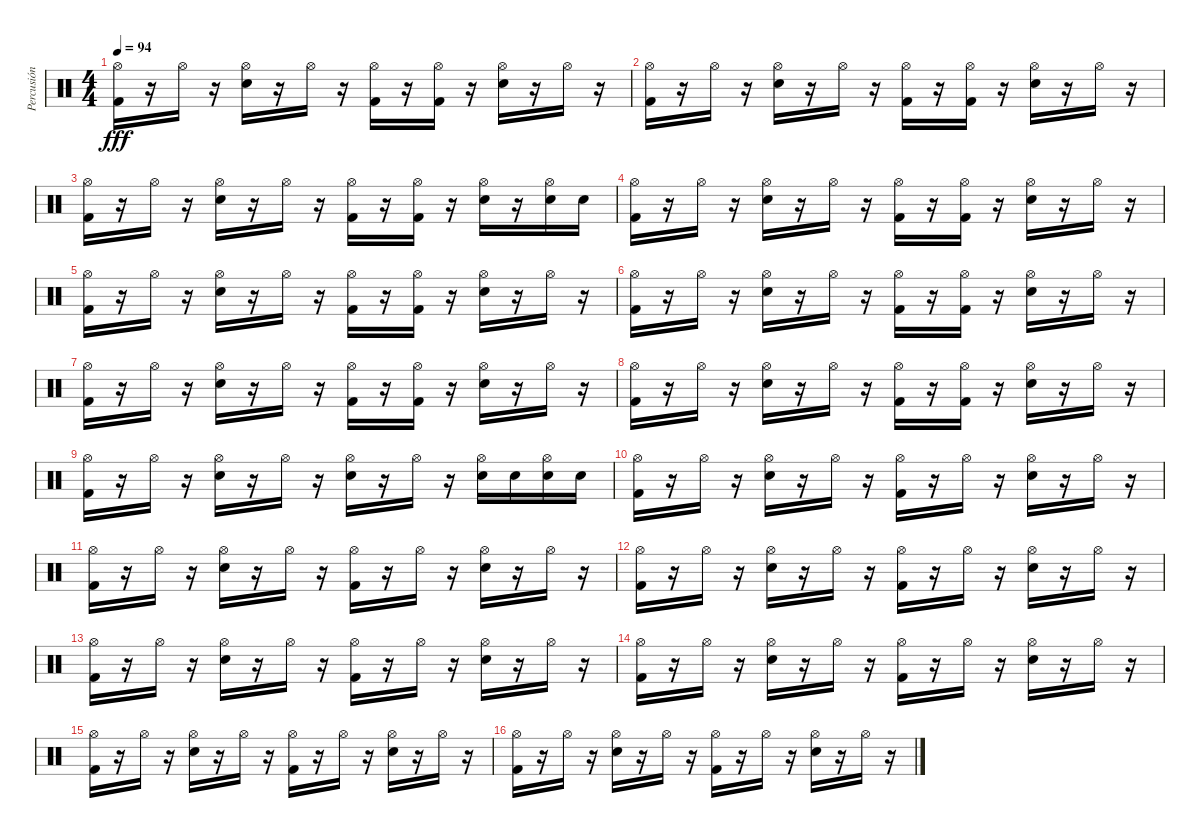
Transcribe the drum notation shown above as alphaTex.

\track ("Percusión" "Percusión") {instrument percussion}
\staff {score}
\articulation defaults
\ts (4 4)
\tempo 94
\clef neutral
\ks c
("Hi-Hat (open)" "Kick (hit) 2").16{dy fff} r.16 "Hi-Hat (open)".16 r.16 ("Hi-Hat (open)" "Snare (hit) 2").16 r.16 "Hi-Hat (open)".16 r.16 ("Hi-Hat (open)" "Kick (hit) 2").16 r.16 ("Hi-Hat (open)" "Kick (hit) 2").16 r.16 ("Hi-Hat (open)" "Snare (hit) 2").16 r.16 "Hi-Hat (open)".16 r.16 |
("Hi-Hat (open)" "Kick (hit) 2").16 r.16 "Hi-Hat (open)".16 r.16 ("Hi-Hat (open)" "Snare (hit) 2").16 r.16 "Hi-Hat (open)".16 r.16 ("Hi-Hat (open)" "Kick (hit) 2").16 r.16 ("Hi-Hat (open)" "Kick (hit) 2").16 r.16 ("Hi-Hat (open)" "Snare (hit) 2").16 r.16 "Hi-Hat (open)".16 r.16 |
("Hi-Hat (open)" "Kick (hit) 2").16 r.16 "Hi-Hat (open)".16 r.16 ("Hi-Hat (open)" "Snare (hit) 2").16 r.16 "Hi-Hat (open)".16 r.16 ("Hi-Hat (open)" "Kick (hit) 2").16 r.16 ("Hi-Hat (open)" "Kick (hit) 2").16 r.16 ("Hi-Hat (open)" "Snare (hit) 2").16 r.16 ("Hi-Hat (open)" "Snare (hit) 2").16 "Snare (hit) 2".16 |
("Hi-Hat (open)" "Kick (hit) 2").16 r.16 "Hi-Hat (open)".16 r.16 ("Hi-Hat (open)" "Snare (hit) 2").16 r.16 "Hi-Hat (open)".16 r.16 ("Hi-Hat (open)" "Kick (hit) 2").16 r.16 ("Hi-Hat (open)" "Kick (hit) 2").16 r.16 ("Hi-Hat (open)" "Snare (hit) 2").16 r.16 "Hi-Hat (open)".16 r.16 |
("Hi-Hat (open)" "Kick (hit) 2").16 r.16 "Hi-Hat (open)".16 r.16 ("Hi-Hat (open)" "Snare (hit) 2").16 r.16 "Hi-Hat (open)".16 r.16 ("Hi-Hat (open)" "Kick (hit) 2").16 r.16 ("Hi-Hat (open)" "Kick (hit) 2").16 r.16 ("Hi-Hat (open)" "Snare (hit) 2").16 r.16 "Hi-Hat (open)".16 r.16 |
("Hi-Hat (open)" "Kick (hit) 2").16 r.16 "Hi-Hat (open)".16 r.16 ("Hi-Hat (open)" "Snare (hit) 2").16 r.16 "Hi-Hat (open)".16 r.16 ("Hi-Hat (open)" "Kick (hit) 2").16 r.16 ("Hi-Hat (open)" "Kick (hit) 2").16 r.16 ("Hi-Hat (open)" "Snare (hit) 2").16 r.16 "Hi-Hat (open)".16 r.16 |
("Hi-Hat (open)" "Kick (hit) 2").16 r.16 "Hi-Hat (open)".16 r.16 ("Hi-Hat (open)" "Snare (hit) 2").16 r.16 "Hi-Hat (open)".16 r.16 ("Hi-Hat (open)" "Kick (hit) 2").16 r.16 ("Hi-Hat (open)" "Kick (hit) 2").16 r.16 ("Hi-Hat (open)" "Snare (hit) 2").16 r.16 "Hi-Hat (open)".16 r.16 |
("Hi-Hat (open)" "Kick (hit) 2").16 r.16 "Hi-Hat (open)".16 r.16 ("Hi-Hat (open)" "Snare (hit) 2").16 r.16 "Hi-Hat (open)".16 r.16 ("Hi-Hat (open)" "Kick (hit) 2").16 r.16 ("Hi-Hat (open)" "Kick (hit) 2").16 r.16 ("Hi-Hat (open)" "Snare (hit) 2").16 r.16 "Hi-Hat (open)".16 r.16 |
("Hi-Hat (open)" "Kick (hit) 2").16 r.16 "Hi-Hat (open)".16 r.16 ("Hi-Hat (open)" "Snare (hit) 2").16 r.16 "Hi-Hat (open)".16 r.16 ("Hi-Hat (open)" "Snare (hit) 2").16 r.16 "Hi-Hat (open)".16 r.16 ("Hi-Hat (open)" "Snare (hit) 2").16 "Snare (hit) 2".16 ("Hi-Hat (open)" "Snare (hit) 2").16 "Snare (hit) 2".16 |
("Hi-Hat (open)" "Kick (hit) 2").16 r.16 "Hi-Hat (open)".16 r.16 ("Hi-Hat (open)" "Snare (hit) 2").16 r.16 "Hi-Hat (open)".16 r.16 ("Hi-Hat (open)" "Kick (hit) 2").16 r.16 "Hi-Hat (open)".16 r.16 ("Hi-Hat (open)" "Snare (hit) 2").16 r.16 "Hi-Hat (open)".16 r.16 |
("Hi-Hat (open)" "Kick (hit) 2").16 r.16 "Hi-Hat (open)".16 r.16 ("Hi-Hat (open)" "Snare (hit) 2").16 r.16 "Hi-Hat (open)".16 r.16 ("Hi-Hat (open)" "Kick (hit) 2").16 r.16 "Hi-Hat (open)".16 r.16 ("Hi-Hat (open)" "Snare (hit) 2").16 r.16 "Hi-Hat (open)".16 r.16 |
("Hi-Hat (open)" "Kick (hit) 2").16 r.16 "Hi-Hat (open)".16 r.16 ("Hi-Hat (open)" "Snare (hit) 2").16 r.16 "Hi-Hat (open)".16 r.16 ("Hi-Hat (open)" "Kick (hit) 2").16 r.16 "Hi-Hat (open)".16 r.16 ("Hi-Hat (open)" "Snare (hit) 2").16 r.16 "Hi-Hat (open)".16 r.16 |
("Hi-Hat (open)" "Kick (hit) 2").16 r.16 "Hi-Hat (open)".16 r.16 ("Hi-Hat (open)" "Snare (hit) 2").16 r.16 "Hi-Hat (open)".16 r.16 ("Hi-Hat (open)" "Kick (hit) 2").16 r.16 "Hi-Hat (open)".16 r.16 ("Hi-Hat (open)" "Snare (hit) 2").16 r.16 "Hi-Hat (open)".16 r.16 |
("Hi-Hat (open)" "Kick (hit) 2").16 r.16 "Hi-Hat (open)".16 r.16 ("Hi-Hat (open)" "Snare (hit) 2").16 r.16 "Hi-Hat (open)".16 r.16 ("Hi-Hat (open)" "Kick (hit) 2").16 r.16 "Hi-Hat (open)".16 r.16 ("Hi-Hat (open)" "Snare (hit) 2").16 r.16 "Hi-Hat (open)".16 r.16 |
("Hi-Hat (open)" "Kick (hit) 2").16 r.16 "Hi-Hat (open)".16 r.16 ("Hi-Hat (open)" "Snare (hit) 2").16 r.16 "Hi-Hat (open)".16 r.16 ("Hi-Hat (open)" "Kick (hit) 2").16 r.16 "Hi-Hat (open)".16 r.16 ("Hi-Hat (open)" "Snare (hit) 2").16 r.16 "Hi-Hat (open)".16 r.16 |
("Hi-Hat (open)" "Kick (hit) 2").16 r.16 "Hi-Hat (open)".16 r.16 ("Hi-Hat (open)" "Snare (hit) 2").16 r.16 "Hi-Hat (open)".16 r.16 ("Hi-Hat (open)" "Kick (hit) 2").16 r.16 "Hi-Hat (open)".16 r.16 ("Hi-Hat (open)" "Snare (hit) 2").16 r.16 "Hi-Hat (open)".16 r.16
